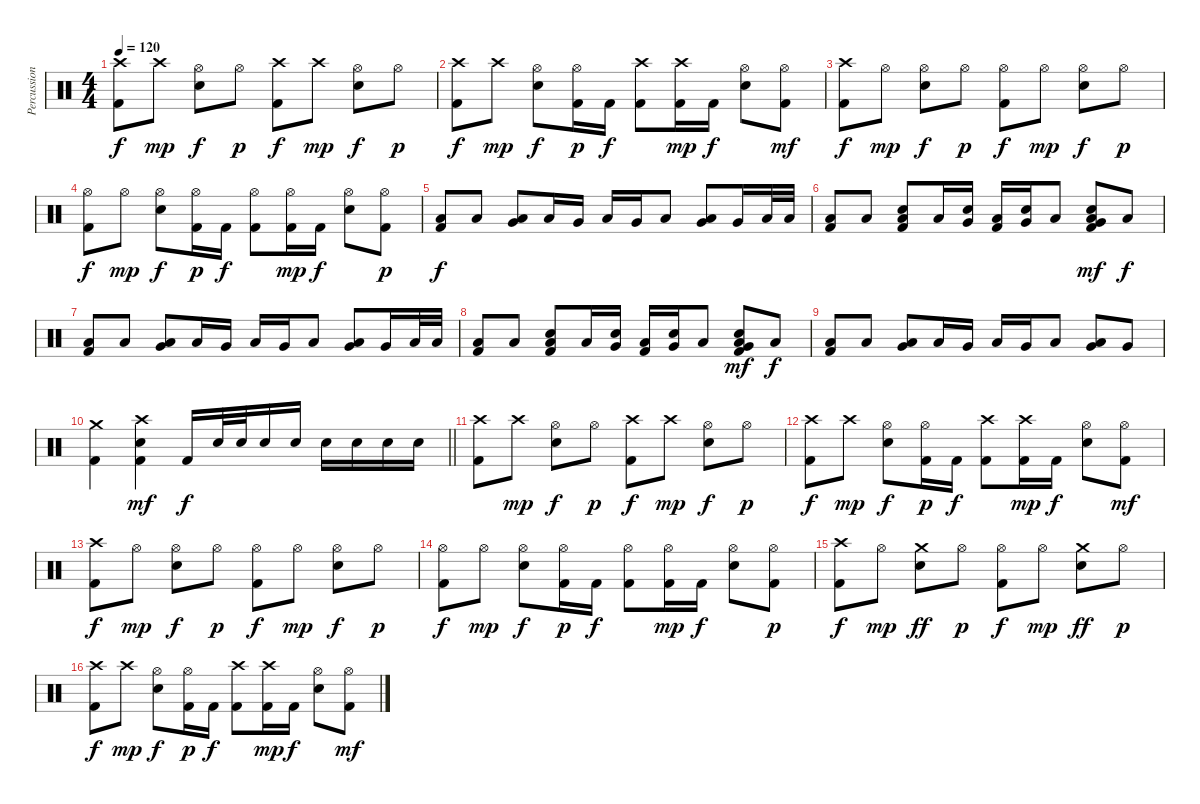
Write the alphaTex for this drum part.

\track ("Percussion" "Percussion") {instrument percussion}
\staff {score}
\articulation defaults
\ts (4 4)
\tempo 120
\clef neutral
\ks c
("Crash high (hit)" "Kick (hit) 2").8{dy f} "Crash high (hit)".8{dy mp} ("Hi-Hat (open)" "Electric Snare (hit)").8{dy f} "Hi-Hat (open)".8{dy p} ("Crash high (hit)" "Kick (hit) 2").8{dy f} "Crash high (hit)".8{dy mp} ("Hi-Hat (open)" "Electric Snare (hit)").8{dy f} "Hi-Hat (open)".8{dy p} |
("Crash high (hit)" "Kick (hit) 2").8{dy f} "Crash high (hit)".8{dy mp} ("Hi-Hat (open)" "Electric Snare (hit)").8{dy f} ("Hi-Hat (open)" "Kick (hit) 2").16{dy p} "Kick (hit) 2".16{dy f} ("Crash high (hit)" "Kick (hit) 2").8 ("Crash high (hit)" "Kick (hit) 2").16{dy mp} "Kick (hit) 2".16{dy f} ("Hi-Hat (open)" "Electric Snare (hit)").8 ("Hi-Hat (open)" "Kick (hit) 2").8{dy mf} |
("Crash high (hit)" "Kick (hit) 2").8{dy f} "Hi-Hat (open)".8{dy mp} ("Hi-Hat (open)" "Electric Snare (hit)").8{dy f} "Hi-Hat (open)".8{dy p} ("Hi-Hat (open)" "Kick (hit) 2").8{dy f} "Hi-Hat (open)".8{dy mp} ("Hi-Hat (open)" "Electric Snare (hit)").8{dy f} "Hi-Hat (open)".8{dy p} |
("Hi-Hat (open)" "Kick (hit) 2").8{dy f} "Hi-Hat (open)".8{dy mp} ("Hi-Hat (open)" "Electric Snare (hit)").8{dy f} ("Hi-Hat (open)" "Kick (hit) 2").16{dy p} "Kick (hit) 2".16{dy f} ("Hi-Hat (open)" "Kick (hit) 2").8 ("Hi-Hat (open)" "Kick (hit) 2").16{dy mp} "Kick (hit) 2".16{dy f} ("Hi-Hat (open)" "Electric Snare (hit)").8 ("Hi-Hat (open)" "Kick (hit) 2").8{dy p} |
("Low Floor Tom (hit)" "Kick (hit) 2").8{dy f} "Low Floor Tom (hit)".8 ("Very Low Tom (hit)" "Low Floor Tom (hit)").8 "Low Floor Tom (hit)".16 "Very Low Tom (hit)".16 "Low Floor Tom (hit)".16 "Very Low Tom (hit)".16 "Low Floor Tom (hit)".8 ("Very Low Tom (hit)" "Low Floor Tom (hit)").8 "Very Low Tom (hit)".16 "Low Floor Tom (hit)".32 "Low Floor Tom (hit)".32 |
("Low Floor Tom (hit)" "Kick (hit) 2").8 "Low Floor Tom (hit)".8 ("Hand Clap (hit)" "Low Floor Tom (hit)" "Kick (hit) 2").8 "Low Floor Tom (hit)".16 ("Hand Clap (hit)" "Very Low Tom (hit)").16 ("Low Floor Tom (hit)" "Kick (hit) 2").16 ("Hand Clap (hit)" "Very Low Tom (hit)").16 "Low Floor Tom (hit)".8 ("Hand Clap (hit)" "Very Low Tom (hit)" "Low Floor Tom (hit)" "Kick (hit) 2").8{dy mf} "Low Floor Tom (hit)".8{dy f} |
("Low Floor Tom (hit)" "Kick (hit) 2").8 "Low Floor Tom (hit)".8 ("Very Low Tom (hit)" "Low Floor Tom (hit)").8 "Low Floor Tom (hit)".16 "Very Low Tom (hit)".16 "Low Floor Tom (hit)".16 "Very Low Tom (hit)".16 "Low Floor Tom (hit)".8 ("Very Low Tom (hit)" "Low Floor Tom (hit)").8 "Very Low Tom (hit)".16 "Low Floor Tom (hit)".32 "Low Floor Tom (hit)".32 |
("Low Floor Tom (hit)" "Kick (hit) 2").8 "Low Floor Tom (hit)".8 ("Hand Clap (hit)" "Low Floor Tom (hit)" "Kick (hit) 2").8 "Low Floor Tom (hit)".16 ("Hand Clap (hit)" "Very Low Tom (hit)").16 ("Low Floor Tom (hit)" "Kick (hit) 2").16 ("Hand Clap (hit)" "Very Low Tom (hit)").16 "Low Floor Tom (hit)".8 ("Hand Clap (hit)" "Very Low Tom (hit)" "Low Floor Tom (hit)" "Kick (hit) 2").8{dy mf} "Low Floor Tom (hit)".8{dy f} |
("Low Floor Tom (hit)" "Kick (hit) 2").8 "Low Floor Tom (hit)".8 ("Very Low Tom (hit)" "Low Floor Tom (hit)").8 "Low Floor Tom (hit)".16 "Very Low Tom (hit)".16 "Low Floor Tom (hit)".16 "Very Low Tom (hit)".16 "Low Floor Tom (hit)".8 ("Very Low Tom (hit)" "Low Floor Tom (hit)").8 "Very Low Tom (hit)".8 |
\barLineRight lightlight
("Crash medium (hit)" "Kick (hit) 2").4 ("Crash high (hit)" "Electric Snare (hit)" "Kick (hit) 2").4{dy mf} "Kick (hit) 2".16{dy f} "Electric Snare (hit)".32 "Electric Snare (hit)".32 "Electric Snare (hit)".16 "Electric Snare (hit)".16 "Electric Snare (hit)".16 "Electric Snare (hit)".16 "Electric Snare (hit)".16 "Electric Snare (hit)".16 |
("Crash high (hit)" "Kick (hit) 2").8 "Crash high (hit)".8{dy mp} ("Hi-Hat (open)" "Electric Snare (hit)").8{dy f} "Hi-Hat (open)".8{dy p} ("Crash high (hit)" "Kick (hit) 2").8{dy f} "Crash high (hit)".8{dy mp} ("Hi-Hat (open)" "Electric Snare (hit)").8{dy f} "Hi-Hat (open)".8{dy p} |
("Crash high (hit)" "Kick (hit) 2").8{dy f} "Crash high (hit)".8{dy mp} ("Hi-Hat (open)" "Electric Snare (hit)").8{dy f} ("Hi-Hat (open)" "Kick (hit) 2").16{dy p} "Kick (hit) 2".16{dy f} ("Crash high (hit)" "Kick (hit) 2").8 ("Crash high (hit)" "Kick (hit) 2").16{dy mp} "Kick (hit) 2".16{dy f} ("Hi-Hat (open)" "Electric Snare (hit)").8 ("Hi-Hat (open)" "Kick (hit) 2").8{dy mf} |
("Crash high (hit)" "Kick (hit) 2").8{dy f} "Hi-Hat (open)".8{dy mp} ("Hi-Hat (open)" "Electric Snare (hit)").8{dy f} "Hi-Hat (open)".8{dy p} ("Hi-Hat (open)" "Kick (hit) 2").8{dy f} "Hi-Hat (open)".8{dy mp} ("Hi-Hat (open)" "Electric Snare (hit)").8{dy f} "Hi-Hat (open)".8{dy p} |
("Hi-Hat (open)" "Kick (hit) 2").8{dy f} "Hi-Hat (open)".8{dy mp} ("Hi-Hat (open)" "Electric Snare (hit)").8{dy f} ("Hi-Hat (open)" "Kick (hit) 2").16{dy p} "Kick (hit) 2".16{dy f} ("Hi-Hat (open)" "Kick (hit) 2").8 ("Hi-Hat (open)" "Kick (hit) 2").16{dy mp} "Kick (hit) 2".16{dy f} ("Hi-Hat (open)" "Electric Snare (hit)").8 ("Hi-Hat (open)" "Kick (hit) 2").8{dy p} |
("Crash high (hit)" "Kick (hit) 2").8{dy f} "Hi-Hat (open)".8{dy mp} ("Crash medium (hit)" "Electric Snare (hit)").8{dy ff} "Hi-Hat (open)".8{dy p} ("Hi-Hat (open)" "Kick (hit) 2").8{dy f} "Hi-Hat (open)".8{dy mp} ("Crash medium (hit)" "Electric Snare (hit)").8{dy ff} "Hi-Hat (open)".8{dy p} |
("Crash high (hit)" "Kick (hit) 2").8{dy f} "Crash high (hit)".8{dy mp} ("Hi-Hat (open)" "Electric Snare (hit)").8{dy f} ("Hi-Hat (open)" "Kick (hit) 2").16{dy p} "Kick (hit) 2".16{dy f} ("Crash high (hit)" "Kick (hit) 2").8 ("Crash high (hit)" "Kick (hit) 2").16{dy mp} "Kick (hit) 2".16{dy f} ("Hi-Hat (open)" "Electric Snare (hit)").8 ("Hi-Hat (open)" "Kick (hit) 2").8{dy mf}
